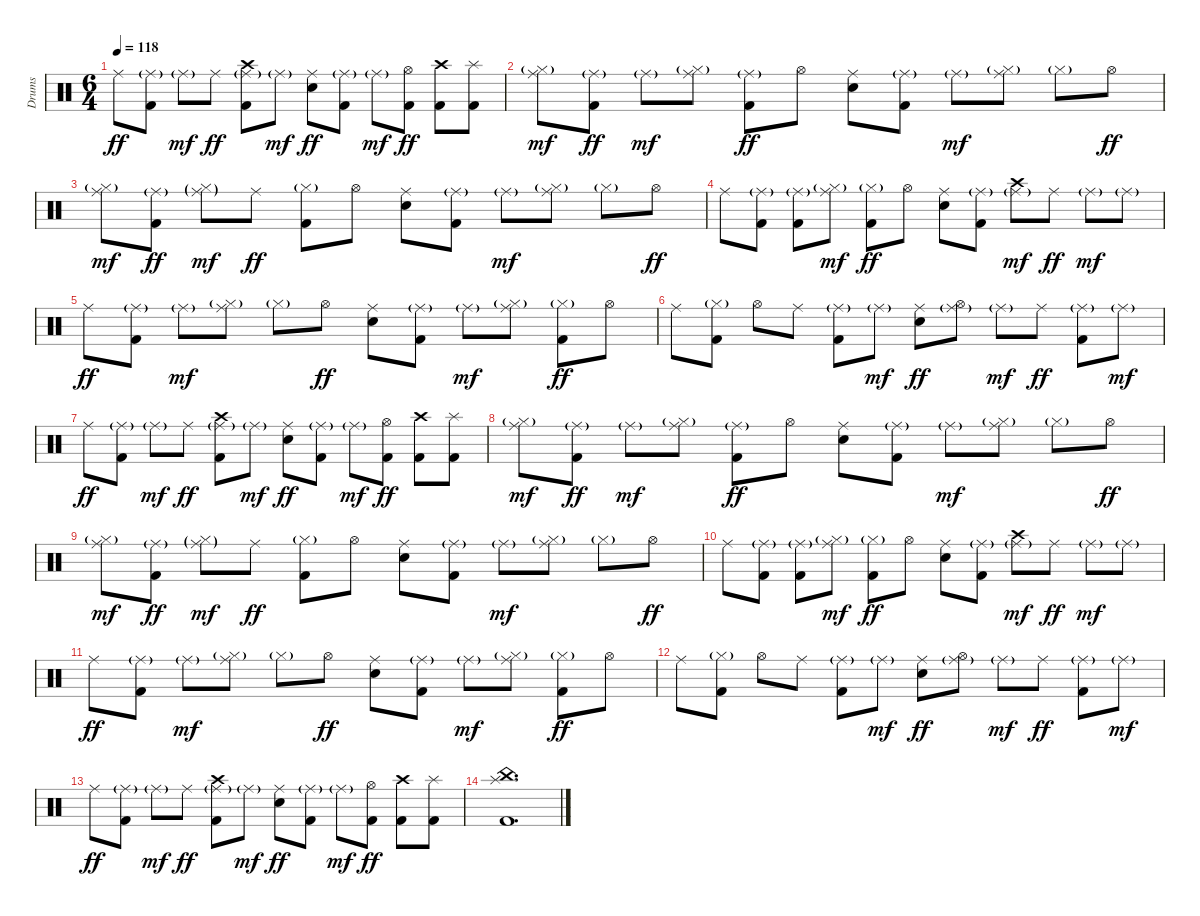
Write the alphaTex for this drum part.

\track ("Drums" "Drums") {instrument percussion}
\staff {score}
\articulation defaults
\ts (6 4)
\tempo 118
\clef neutral
\ks c "Ride (middle)".8{dy ff}
("Ride (middle)"{g} "Kick (hit) 2").8 "Ride (middle)"{g}.8{dy mf} "Ride (middle)".8{dy ff} ("Crash high (hit)" "Ride (middle)"{g} "Kick (hit) 2").8 "Ride (middle)"{g}.8{dy mf} ("Ride (middle)" "Electric Snare (hit)").8{dy ff} ("Ride (middle)"{g} "Kick (hit) 2").8 "Ride (middle)"{g}.8{dy mf} ("Hi-Hat (open)" "Kick (hit) 2").8{dy ff} ("Crash high (hit)" "Kick (hit) 2").8 ("Splash (hit)" "Kick (hit) 2").8 |
\section ("" "")
("Ride (middle)" "Hi-Hat (closed)"{g}).8{dy mf} ("Ride (middle)"{g} "Kick (hit) 2").8{dy ff} "Ride (middle)"{g}.8{dy mf} ("Ride (middle)" "Hi-Hat (closed)"{g}).8 ("Ride (middle)"{g} "Kick (hit) 2").8{dy ff} "Hi-Hat (open)".8 ("Ride (middle)" "Electric Snare (hit)").8 ("Ride (middle)"{g} "Kick (hit) 2").8 "Ride (middle)"{g}.8{dy mf} ("Ride (middle)" "Hi-Hat (closed)"{g}).8 "Hi-Hat (closed)"{g}.8 "Hi-Hat (open)".8{dy ff} |
("Ride (middle)" "Hi-Hat (closed)"{g}).8{dy mf} ("Ride (middle)"{g} "Kick (hit) 2").8{dy ff} ("Ride (middle)"{g} "Hi-Hat (closed)"{g}).8{dy mf} "Ride (middle)".8{dy ff} ("Hi-Hat (closed)"{g} "Kick (hit) 2").8 "Hi-Hat (open)".8 ("Ride (middle)" "Electric Snare (hit)").8 ("Ride (middle)"{g} "Kick (hit) 2").8 "Ride (middle)"{g}.8{dy mf} ("Ride (middle)" "Hi-Hat (closed)"{g}).8 "Hi-Hat (closed)"{g}.8 "Hi-Hat (open)".8{dy ff} |
"Ride (middle)".8 ("Ride (middle)"{g} "Kick (hit) 2").8 ("Ride (middle)"{g} "Kick (hit) 2").8 ("Ride (middle)" "Hi-Hat (closed)"{g}).8{dy mf} ("Hi-Hat (closed)"{g} "Kick (hit) 2").8{dy ff} "Hi-Hat (open)".8 ("Ride (middle)" "Electric Snare (hit)").8 ("Ride (middle)"{g} "Kick (hit) 2").8 ("Crash high (hit)" "Ride (middle)"{g}).8{dy mf} "Ride (middle)".8{dy ff} "Ride (middle)"{g}.8{dy mf} "Ride (middle)"{g}.8 |
"Ride (middle)".8{dy ff} ("Ride (middle)"{g} "Kick (hit) 2").8 "Ride (middle)"{g}.8{dy mf} ("Ride (middle)" "Hi-Hat (closed)"{g}).8 "Hi-Hat (closed)"{g}.8 "Hi-Hat (open)".8{dy ff} ("Ride (middle)" "Electric Snare (hit)").8 ("Ride (middle)"{g} "Kick (hit) 2").8 "Ride (middle)"{g}.8{dy mf} ("Ride (middle)" "Hi-Hat (closed)"{g}).8 ("Hi-Hat (closed)"{g} "Kick (hit) 2").8{dy ff} "Hi-Hat (open)".8 |
"Ride (middle)".8 ("Hi-Hat (closed)"{g} "Kick (hit) 2").8 "Hi-Hat (open)".8 "Ride (middle)".8 ("Ride (middle)"{g} "Kick (hit) 2").8 "Ride (middle)"{g}.8{dy mf} ("Ride (middle)" "Electric Snare (hit)").8{dy ff} ("Ride (middle)"{g} "Hi-Hat (open)").8 "Ride (middle)"{g}.8{dy mf} "Ride (middle)".8{dy ff} ("Ride (middle)"{g} "Kick (hit) 2").8 "Ride (middle)"{g}.8{dy mf} |
"Ride (middle)".8{dy ff} ("Ride (middle)"{g} "Kick (hit) 2").8 "Ride (middle)"{g}.8{dy mf} "Ride (middle)".8{dy ff} ("Crash high (hit)" "Ride (middle)"{g} "Kick (hit) 2").8 "Ride (middle)"{g}.8{dy mf} ("Ride (middle)" "Electric Snare (hit)").8{dy ff} ("Ride (middle)"{g} "Kick (hit) 2").8 "Ride (middle)"{g}.8{dy mf} ("Hi-Hat (open)" "Kick (hit) 2").8{dy ff} ("Crash high (hit)" "Kick (hit) 2").8 ("Splash (hit)" "Kick (hit) 2").8 |
("Ride (middle)" "Hi-Hat (closed)"{g}).8{dy mf} ("Ride (middle)"{g} "Kick (hit) 2").8{dy ff} "Ride (middle)"{g}.8{dy mf} ("Ride (middle)" "Hi-Hat (closed)"{g}).8 ("Ride (middle)"{g} "Kick (hit) 2").8{dy ff} "Hi-Hat (open)".8 ("Ride (middle)" "Electric Snare (hit)").8 ("Ride (middle)"{g} "Kick (hit) 2").8 "Ride (middle)"{g}.8{dy mf} ("Ride (middle)" "Hi-Hat (closed)"{g}).8 "Hi-Hat (closed)"{g}.8 "Hi-Hat (open)".8{dy ff} |
("Ride (middle)" "Hi-Hat (closed)"{g}).8{dy mf} ("Ride (middle)"{g} "Kick (hit) 2").8{dy ff} ("Ride (middle)"{g} "Hi-Hat (closed)"{g}).8{dy mf} "Ride (middle)".8{dy ff} ("Hi-Hat (closed)"{g} "Kick (hit) 2").8 "Hi-Hat (open)".8 ("Ride (middle)" "Electric Snare (hit)").8 ("Ride (middle)"{g} "Kick (hit) 2").8 "Ride (middle)"{g}.8{dy mf} ("Ride (middle)" "Hi-Hat (closed)"{g}).8 "Hi-Hat (closed)"{g}.8 "Hi-Hat (open)".8{dy ff} |
"Ride (middle)".8 ("Ride (middle)"{g} "Kick (hit) 2").8 ("Ride (middle)"{g} "Kick (hit) 2").8 ("Ride (middle)" "Hi-Hat (closed)"{g}).8{dy mf} ("Hi-Hat (closed)"{g} "Kick (hit) 2").8{dy ff} "Hi-Hat (open)".8 ("Ride (middle)" "Electric Snare (hit)").8 ("Ride (middle)"{g} "Kick (hit) 2").8 ("Crash high (hit)" "Ride (middle)"{g}).8{dy mf} "Ride (middle)".8{dy ff} "Ride (middle)"{g}.8{dy mf} "Ride (middle)"{g}.8 |
"Ride (middle)".8{dy ff} ("Ride (middle)"{g} "Kick (hit) 2").8 "Ride (middle)"{g}.8{dy mf} ("Ride (middle)" "Hi-Hat (closed)"{g}).8 "Hi-Hat (closed)"{g}.8 "Hi-Hat (open)".8{dy ff} ("Ride (middle)" "Electric Snare (hit)").8 ("Ride (middle)"{g} "Kick (hit) 2").8 "Ride (middle)"{g}.8{dy mf} ("Ride (middle)" "Hi-Hat (closed)"{g}).8 ("Hi-Hat (closed)"{g} "Kick (hit) 2").8{dy ff} "Hi-Hat (open)".8 |
"Ride (middle)".8 ("Hi-Hat (closed)"{g} "Kick (hit) 2").8 "Hi-Hat (open)".8 "Ride (middle)".8 ("Ride (middle)"{g} "Kick (hit) 2").8 "Ride (middle)"{g}.8{dy mf} ("Ride (middle)" "Electric Snare (hit)").8{dy ff} ("Ride (middle)"{g} "Hi-Hat (open)").8 "Ride (middle)"{g}.8{dy mf} "Ride (middle)".8{dy ff} ("Ride (middle)"{g} "Kick (hit) 2").8 "Ride (middle)"{g}.8{dy mf} |
"Ride (middle)".8{dy ff} ("Ride (middle)"{g} "Kick (hit) 2").8 "Ride (middle)"{g}.8{dy mf} "Ride (middle)".8{dy ff} ("Crash high (hit)" "Ride (middle)"{g} "Kick (hit) 2").8 "Ride (middle)"{g}.8{dy mf} ("Ride (middle)" "Electric Snare (hit)").8{dy ff} ("Ride (middle)"{g} "Kick (hit) 2").8 "Ride (middle)"{g}.8{dy mf} ("Hi-Hat (open)" "Kick (hit) 2").8{dy ff} ("Crash high (hit)" "Kick (hit) 2").8 ("Splash (hit)" "Kick (hit) 2").8 |
\section ("" "")
("Splash (hit)" "China (hit)" "Kick (hit) 2").1{d}
